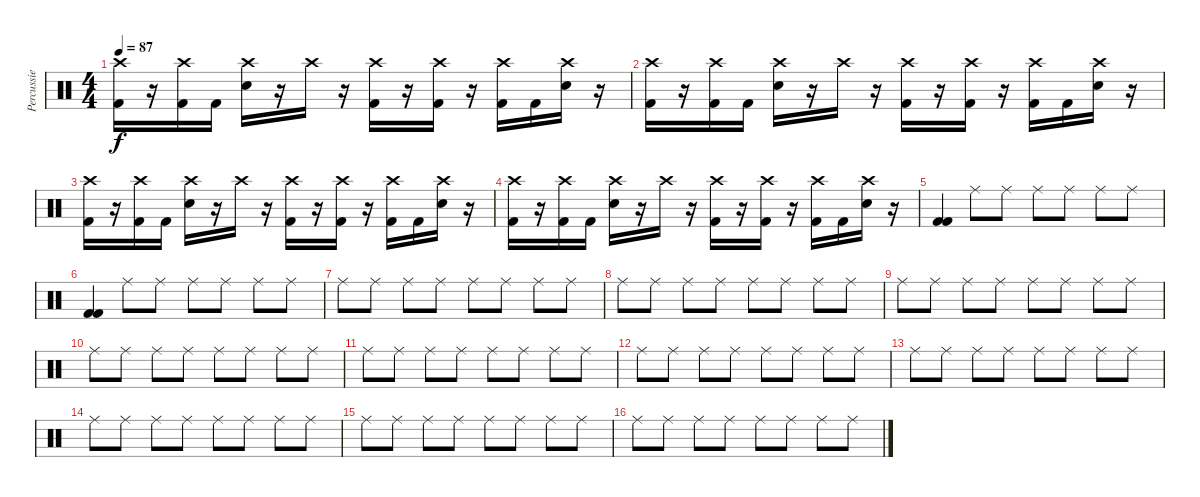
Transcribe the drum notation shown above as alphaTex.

\track ("Percussie" "Percussie") {instrument percussion}
\staff {score}
\articulation defaults
\ts (4 4)
\tempo 87
\clef neutral
\ks c
("Kick (hit) 2" "Crash high (hit)").16{dy f} r.16 ("Kick (hit) 2" "Crash high (hit)").16 "Kick (hit) 2".16 ("Snare (hit) 2" "Crash high (hit)").16 r.16 "Crash high (hit)".16 r.16 ("Kick (hit) 2" "Crash high (hit)").16 r.16 ("Kick (hit) 2" "Crash high (hit)").16 r.16 ("Kick (hit) 2" "Crash high (hit)").16 "Kick (hit) 2".16 ("Snare (hit) 2" "Crash high (hit)").16 r.16 |
("Kick (hit) 2" "Crash high (hit)").16 r.16 ("Kick (hit) 2" "Crash high (hit)").16 "Kick (hit) 2".16 ("Snare (hit) 2" "Crash high (hit)").16 r.16 "Crash high (hit)".16 r.16 ("Kick (hit) 2" "Crash high (hit)").16 r.16 ("Kick (hit) 2" "Crash high (hit)").16 r.16 ("Kick (hit) 2" "Crash high (hit)").16 "Kick (hit) 2".16 ("Snare (hit) 2" "Crash high (hit)").16 r.16 |
("Kick (hit) 2" "Crash high (hit)").16 r.16 ("Kick (hit) 2" "Crash high (hit)").16 "Kick (hit) 2".16 ("Snare (hit) 2" "Crash high (hit)").16 r.16 "Crash high (hit)".16 r.16 ("Kick (hit) 2" "Crash high (hit)").16 r.16 ("Kick (hit) 2" "Crash high (hit)").16 r.16 ("Kick (hit) 2" "Crash high (hit)").16 "Kick (hit) 2".16 ("Snare (hit) 2" "Crash high (hit)").16 r.16 |
("Kick (hit) 2" "Crash high (hit)").16 r.16 ("Kick (hit) 2" "Crash high (hit)").16 "Kick (hit) 2".16 ("Snare (hit) 2" "Crash high (hit)").16 r.16 "Crash high (hit)".16 r.16 ("Kick (hit) 2" "Crash high (hit)").16 r.16 ("Kick (hit) 2" "Crash high (hit)").16 r.16 ("Kick (hit) 2" "Crash high (hit)").16 "Kick (hit) 2".16 ("Snare (hit) 2" "Crash high (hit)").16 r.16 |
("Kick (hit) 2" "Kick (hit) 2").4 "Ride (middle)".8 "Ride (middle)".8 "Ride (middle)".8 "Ride (middle)".8 "Ride (middle)".8 "Ride (middle)".8 |
("Kick (hit) 2" "Kick (hit) 2").4 "Ride (middle)".8 "Ride (middle)".8 "Ride (middle)".8 "Ride (middle)".8 "Ride (middle)".8 "Ride (middle)".8 |
"Ride (middle)".8 "Ride (middle)".8 "Ride (middle)".8 "Ride (middle)".8 "Ride (middle)".8 "Ride (middle)".8 "Ride (middle)".8 "Ride (middle)".8 |
"Ride (middle)".8 "Ride (middle)".8 "Ride (middle)".8 "Ride (middle)".8 "Ride (middle)".8 "Ride (middle)".8 "Ride (middle)".8 "Ride (middle)".8 |
"Ride (middle)".8 "Ride (middle)".8 "Ride (middle)".8 "Ride (middle)".8 "Ride (middle)".8 "Ride (middle)".8 "Ride (middle)".8 "Ride (middle)".8 |
"Ride (middle)".8 "Ride (middle)".8 "Ride (middle)".8 "Ride (middle)".8 "Ride (middle)".8 "Ride (middle)".8 "Ride (middle)".8 "Ride (middle)".8 |
"Ride (middle)".8 "Ride (middle)".8 "Ride (middle)".8 "Ride (middle)".8 "Ride (middle)".8 "Ride (middle)".8 "Ride (middle)".8 "Ride (middle)".8 |
"Ride (middle)".8 "Ride (middle)".8 "Ride (middle)".8 "Ride (middle)".8 "Ride (middle)".8 "Ride (middle)".8 "Ride (middle)".8 "Ride (middle)".8 |
"Ride (middle)".8 "Ride (middle)".8 "Ride (middle)".8 "Ride (middle)".8 "Ride (middle)".8 "Ride (middle)".8 "Ride (middle)".8 "Ride (middle)".8 |
"Ride (middle)".8 "Ride (middle)".8 "Ride (middle)".8 "Ride (middle)".8 "Ride (middle)".8 "Ride (middle)".8 "Ride (middle)".8 "Ride (middle)".8 |
"Ride (middle)".8 "Ride (middle)".8 "Ride (middle)".8 "Ride (middle)".8 "Ride (middle)".8 "Ride (middle)".8 "Ride (middle)".8 "Ride (middle)".8 |
"Ride (middle)".8 "Ride (middle)".8 "Ride (middle)".8 "Ride (middle)".8 "Ride (middle)".8 "Ride (middle)".8 "Ride (middle)".8 "Ride (middle)".8
